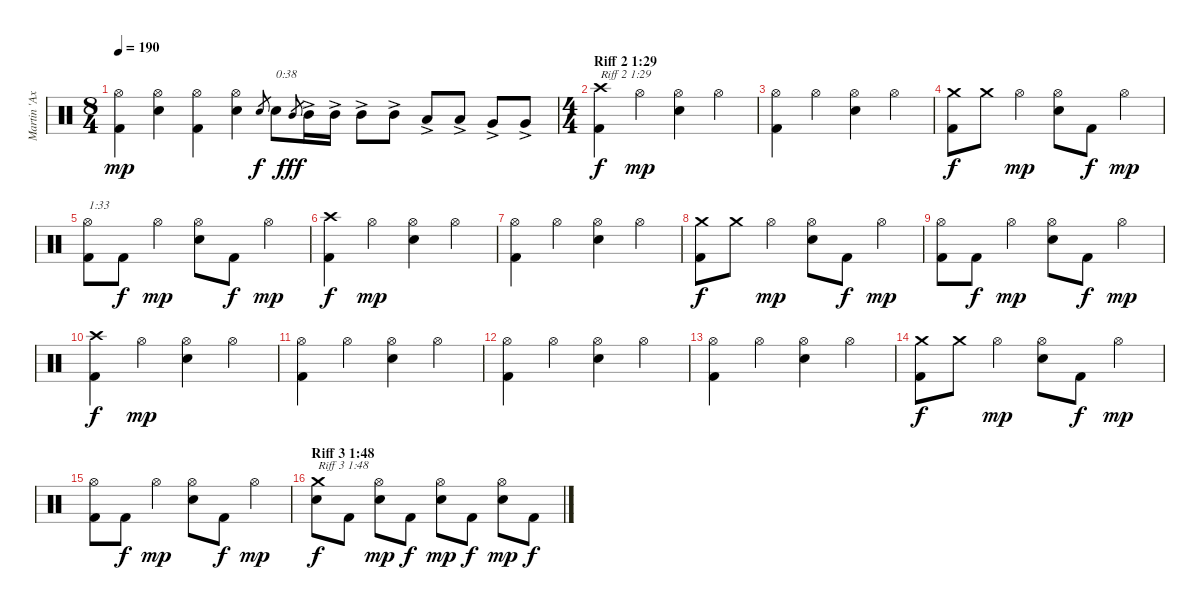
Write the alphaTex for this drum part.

\track ("Martin 'Axe' Axenroth" "Martin 'Ax") {instrument percussion}
\staff {score}
\articulation defaults
\ts (8 4)
\tempo 190
\clef neutral
\ks c
("Kick (hit) 2" "Hi-Hat (open)").4{dy mp} ("Electric Snare (hit)" "Hi-Hat (open)").4 ("Kick (hit) 2" "Hi-Hat (open)").4 ("Electric Snare (hit)" "Hi-Hat (open)").4 "Electric Snare (hit)".8{gr dy f} "Electric Snare (hit)".8{txt "0:38"} "Mid Tom (hit)".8{gr dy fff} "Mid Tom (hit)"{ac}.16 "Mid Tom (hit)"{ac}.16 "Mid Tom (hit)"{ac}.8 "Mid Tom (hit)"{ac}.8 "Low Tom (hit)"{ac}.8 "Low Tom (hit)"{ac}.8 "Very Low Tom (hit)"{ac}.8 "Very Low Tom (hit)"{ac}.8 |
\ts (4 4)
\section ("" "Riff 2 1:29")
("Kick (hit) 2" "Crash high (hit)").4{txt "Riff 2 1:29" dy f} "Hi-Hat (open)".4{dy mp} ("Electric Snare (hit)" "Hi-Hat (open)").4 "Hi-Hat (open)".4 |
("Kick (hit) 2" "Hi-Hat (open)").4 "Hi-Hat (open)".4 ("Electric Snare (hit)" "Hi-Hat (open)").4 "Hi-Hat (open)".4 |
("Kick (hit) 2" "Crash medium (hit)").8{dy f} "Crash medium (hit)".8 "Hi-Hat (open)".4{dy mp} ("Electric Snare (hit)" "Hi-Hat (open)").8 "Kick (hit) 2".8{dy f} "Hi-Hat (open)".4{dy mp} |
("Kick (hit) 2" "Hi-Hat (open)").8{txt "1:33"} "Kick (hit) 2".8{dy f} "Hi-Hat (open)".4{dy mp} ("Electric Snare (hit)" "Hi-Hat (open)").8 "Kick (hit) 2".8{dy f} "Hi-Hat (open)".4{dy mp} |
("Kick (hit) 2" "Crash high (hit)").4{dy f} "Hi-Hat (open)".4{dy mp} ("Electric Snare (hit)" "Hi-Hat (open)").4 "Hi-Hat (open)".4 |
("Kick (hit) 2" "Hi-Hat (open)").4 "Hi-Hat (open)".4 ("Electric Snare (hit)" "Hi-Hat (open)").4 "Hi-Hat (open)".4 |
("Kick (hit) 2" "Crash medium (hit)").8{dy f} "Crash medium (hit)".8 "Hi-Hat (open)".4{dy mp} ("Electric Snare (hit)" "Hi-Hat (open)").8 "Kick (hit) 2".8{dy f} "Hi-Hat (open)".4{dy mp} |
("Kick (hit) 2" "Hi-Hat (open)").8 "Kick (hit) 2".8{dy f} "Hi-Hat (open)".4{dy mp} ("Electric Snare (hit)" "Hi-Hat (open)").8 "Kick (hit) 2".8{dy f} "Hi-Hat (open)".4{dy mp} |
("Kick (hit) 2" "Crash high (hit)").4{dy f} "Hi-Hat (open)".4{dy mp} ("Electric Snare (hit)" "Hi-Hat (open)").4 "Hi-Hat (open)".4 |
("Kick (hit) 2" "Hi-Hat (open)").4 "Hi-Hat (open)".4 ("Electric Snare (hit)" "Hi-Hat (open)").4 "Hi-Hat (open)".4 |
("Kick (hit) 2" "Hi-Hat (open)").4 "Hi-Hat (open)".4 ("Electric Snare (hit)" "Hi-Hat (open)").4 "Hi-Hat (open)".4 |
("Kick (hit) 2" "Hi-Hat (open)").4 "Hi-Hat (open)".4 ("Electric Snare (hit)" "Hi-Hat (open)").4 "Hi-Hat (open)".4 |
("Kick (hit) 2" "Crash medium (hit)").8{dy f} "Crash medium (hit)".8 "Hi-Hat (open)".4{dy mp} ("Electric Snare (hit)" "Hi-Hat (open)").8 "Kick (hit) 2".8{dy f} "Hi-Hat (open)".4{dy mp} |
("Kick (hit) 2" "Hi-Hat (open)").8 "Kick (hit) 2".8{dy f} "Hi-Hat (open)".4{dy mp} ("Electric Snare (hit)" "Hi-Hat (open)").8 "Kick (hit) 2".8{dy f} "Hi-Hat (open)".4{dy mp} |
\section ("" "Riff 3 1:48")
("Electric Snare (hit)" "Crash medium (hit)").8{txt "Riff 3 1:48" dy f} "Kick (hit) 2".8 ("Electric Snare (hit)" "Hi-Hat (open)").8{dy mp} "Kick (hit) 2".8{dy f} ("Electric Snare (hit)" "Hi-Hat (open)").8{dy mp} "Kick (hit) 2".8{dy f} ("Electric Snare (hit)" "Hi-Hat (open)").8{dy mp} "Kick (hit) 2".8{dy f}
